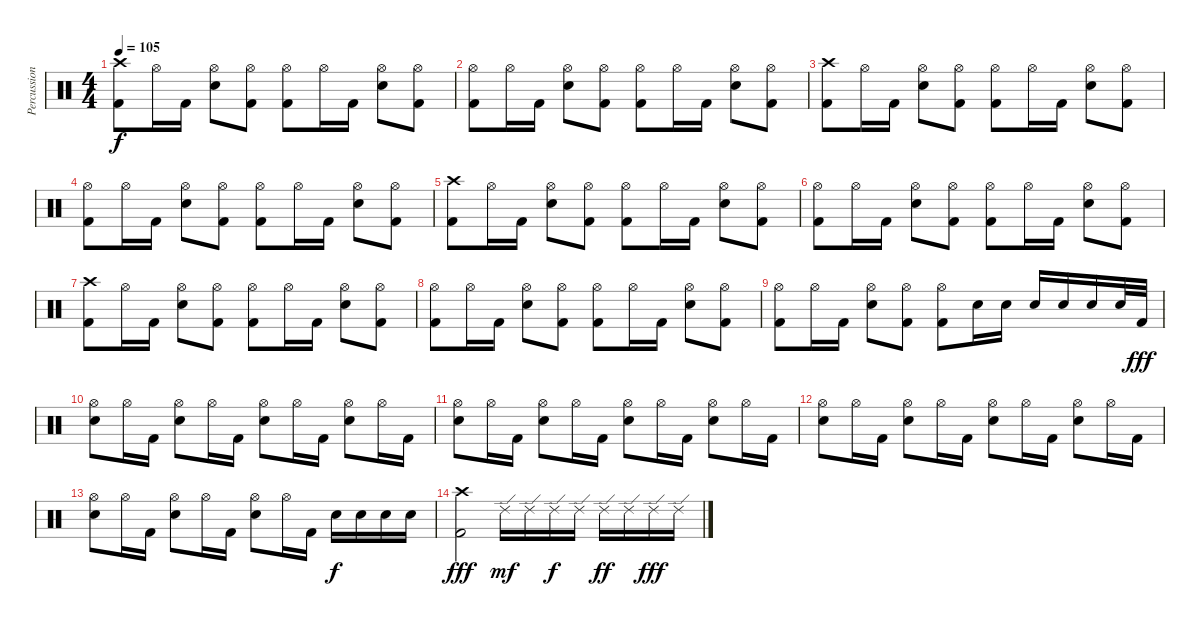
\track ("Percussion" "Percussion") {instrument percussion}
\staff {score}
\articulation defaults
\ts (4 4)
\tempo 105
\clef neutral
\ks c
("Crash high (hit)" "Kick (hit) 2").8{dy f} "Hi-Hat (open)".16 "Kick (hit) 2".16 ("Hi-Hat (open)" "Electric Snare (hit)").8 ("Hi-Hat (open)" "Kick (hit) 2").8 ("Hi-Hat (open)" "Kick (hit) 2").8 "Hi-Hat (open)".16 "Kick (hit) 2".16 ("Hi-Hat (open)" "Electric Snare (hit)").8 ("Hi-Hat (open)" "Kick (hit) 2").8 |
("Hi-Hat (open)" "Kick (hit) 2").8 "Hi-Hat (open)".16 "Kick (hit) 2".16 ("Hi-Hat (open)" "Electric Snare (hit)").8 ("Hi-Hat (open)" "Kick (hit) 2").8 ("Hi-Hat (open)" "Kick (hit) 2").8 "Hi-Hat (open)".16 "Kick (hit) 2".16 ("Hi-Hat (open)" "Electric Snare (hit)").8 ("Hi-Hat (open)" "Kick (hit) 2").8 |
("Crash high (hit)" "Kick (hit) 2").8 "Hi-Hat (open)".16 "Kick (hit) 2".16 ("Hi-Hat (open)" "Electric Snare (hit)").8 ("Hi-Hat (open)" "Kick (hit) 2").8 ("Hi-Hat (open)" "Kick (hit) 2").8 "Hi-Hat (open)".16 "Kick (hit) 2".16 ("Hi-Hat (open)" "Electric Snare (hit)").8 ("Hi-Hat (open)" "Kick (hit) 2").8 |
("Hi-Hat (open)" "Kick (hit) 2").8 "Hi-Hat (open)".16 "Kick (hit) 2".16 ("Hi-Hat (open)" "Electric Snare (hit)").8 ("Hi-Hat (open)" "Kick (hit) 2").8 ("Hi-Hat (open)" "Kick (hit) 2").8 "Hi-Hat (open)".16 "Kick (hit) 2".16 ("Hi-Hat (open)" "Electric Snare (hit)").8 ("Hi-Hat (open)" "Kick (hit) 2").8 |
("Crash high (hit)" "Kick (hit) 2").8 "Hi-Hat (open)".16 "Kick (hit) 2".16 ("Hi-Hat (open)" "Electric Snare (hit)").8 ("Hi-Hat (open)" "Kick (hit) 2").8 ("Hi-Hat (open)" "Kick (hit) 2").8 "Hi-Hat (open)".16 "Kick (hit) 2".16 ("Hi-Hat (open)" "Electric Snare (hit)").8 ("Hi-Hat (open)" "Kick (hit) 2").8 |
("Hi-Hat (open)" "Kick (hit) 2").8 "Hi-Hat (open)".16 "Kick (hit) 2".16 ("Hi-Hat (open)" "Electric Snare (hit)").8 ("Hi-Hat (open)" "Kick (hit) 2").8 ("Hi-Hat (open)" "Kick (hit) 2").8 "Hi-Hat (open)".16 "Kick (hit) 2".16 ("Hi-Hat (open)" "Electric Snare (hit)").8 ("Hi-Hat (open)" "Kick (hit) 2").8 |
("Crash high (hit)" "Kick (hit) 2").8 "Hi-Hat (open)".16 "Kick (hit) 2".16 ("Hi-Hat (open)" "Electric Snare (hit)").8 ("Hi-Hat (open)" "Kick (hit) 2").8 ("Hi-Hat (open)" "Kick (hit) 2").8 "Hi-Hat (open)".16 "Kick (hit) 2".16 ("Hi-Hat (open)" "Electric Snare (hit)").8 ("Hi-Hat (open)" "Kick (hit) 2").8 |
("Hi-Hat (open)" "Kick (hit) 2").8 "Hi-Hat (open)".16 "Kick (hit) 2".16 ("Hi-Hat (open)" "Electric Snare (hit)").8 ("Hi-Hat (open)" "Kick (hit) 2").8 ("Hi-Hat (open)" "Kick (hit) 2").8 "Hi-Hat (open)".16 "Kick (hit) 2".16 ("Hi-Hat (open)" "Electric Snare (hit)").8 ("Hi-Hat (open)" "Kick (hit) 2").8 |
("Hi-Hat (open)" "Kick (hit) 2").8 "Hi-Hat (open)".16 "Kick (hit) 2".16 ("Hi-Hat (open)" "Electric Snare (hit)").8 ("Hi-Hat (open)" "Kick (hit) 2").8 ("Hi-Hat (open)" "Kick (hit) 2").8 "Electric Snare (hit)".16 "Electric Snare (hit)".16 "Electric Snare (hit)".16 "Electric Snare (hit)".16 "Electric Snare (hit)".16 "Electric Snare (hit)".32 "Kick (hit) 2".32{dy fff} |
("Hi-Hat (open)" "Electric Snare (hit)").8 "Hi-Hat (open)".16 "Kick (hit) 2".16 ("Hi-Hat (open)" "Electric Snare (hit)").8 "Hi-Hat (open)".16 "Kick (hit) 2".16 ("Hi-Hat (open)" "Electric Snare (hit)").8 "Hi-Hat (open)".16 "Kick (hit) 2".16 ("Hi-Hat (open)" "Electric Snare (hit)").8 "Hi-Hat (open)".16 "Kick (hit) 2".16 |
("Hi-Hat (open)" "Electric Snare (hit)").8 "Hi-Hat (open)".16 "Kick (hit) 2".16 ("Hi-Hat (open)" "Electric Snare (hit)").8 "Hi-Hat (open)".16 "Kick (hit) 2".16 ("Hi-Hat (open)" "Electric Snare (hit)").8 "Hi-Hat (open)".16 "Kick (hit) 2".16 ("Hi-Hat (open)" "Electric Snare (hit)").8 "Hi-Hat (open)".16 "Kick (hit) 2".16 |
("Hi-Hat (open)" "Electric Snare (hit)").8 "Hi-Hat (open)".16 "Kick (hit) 2".16 ("Hi-Hat (open)" "Electric Snare (hit)").8 "Hi-Hat (open)".16 "Kick (hit) 2".16 ("Hi-Hat (open)" "Electric Snare (hit)").8 "Hi-Hat (open)".16 "Kick (hit) 2".16 ("Hi-Hat (open)" "Electric Snare (hit)").8 "Hi-Hat (open)".16 "Kick (hit) 2".16 |
("Hi-Hat (open)" "Electric Snare (hit)").8 "Hi-Hat (open)".16 "Kick (hit) 2".16 ("Hi-Hat (open)" "Electric Snare (hit)").8 "Hi-Hat (open)".16 "Kick (hit) 2".16 ("Hi-Hat (open)" "Electric Snare (hit)").8 "Hi-Hat (open)".16 "Kick (hit) 2".16 "Electric Snare (hit)".16{dy f} "Electric Snare (hit)".16 "Electric Snare (hit)".16 "Electric Snare (hit)".16 |
("Crash high (hit)" "Kick (hit) 2").2{dy fff} "Ride (edge) 2".16{dy mf} "Ride (edge) 2".16 "Ride (edge) 2".16{dy f} "Ride (edge) 2".16 "Ride (edge) 2".16{dy ff} "Ride (edge) 2".16 "Ride (edge) 2".16{dy fff} "Ride (edge) 2".16
